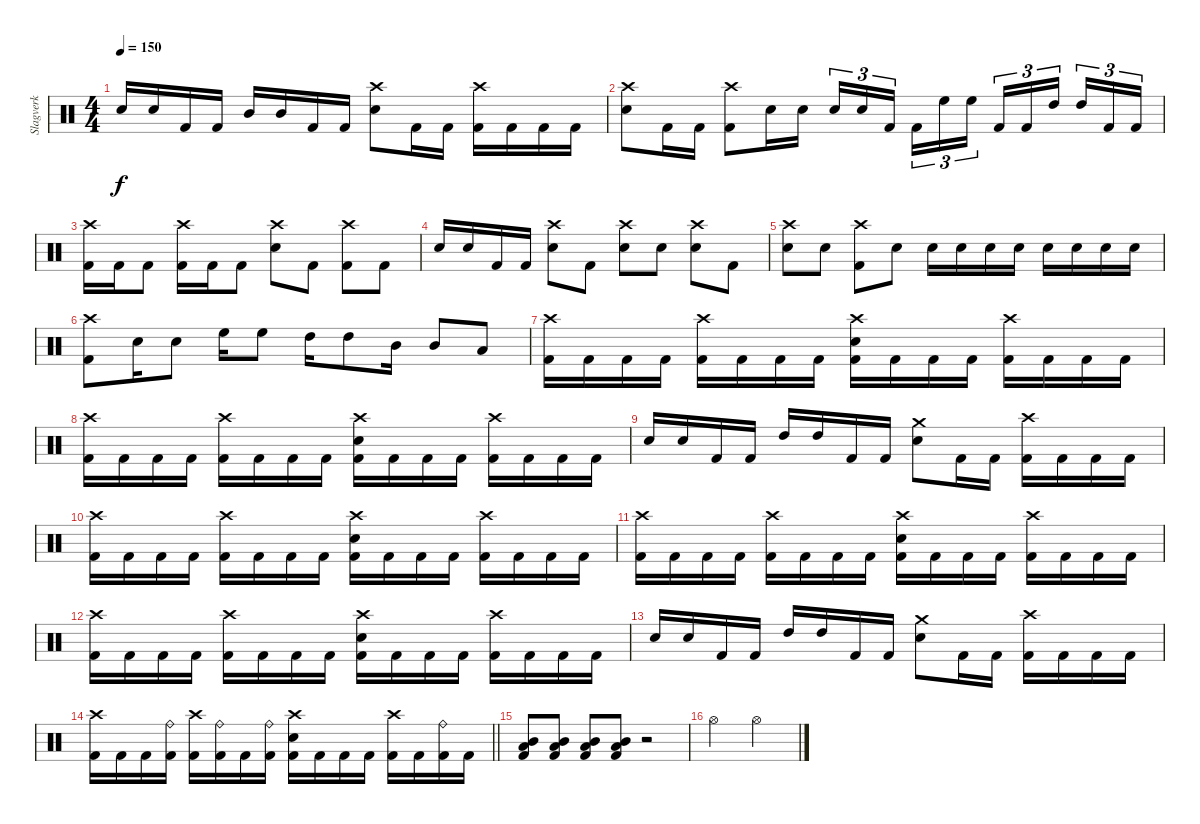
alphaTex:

\track ("Slagverk" "Slagverk") {instrument percussion}
\staff {score}
\articulation defaults
\ts (4 4)
\tempo 150
\clef neutral
\ks c "Electric Snare (hit)".16{dy f} "Electric Snare (hit)".16 "Kick (hit) 2".16 "Kick (hit) 2".16 "Mid Tom (hit)".16 "Mid Tom (hit)".16 "Kick (hit) 2".16 "Kick (hit) 2".16
("Crash high (hit)" "Electric Snare (hit)").8 "Kick (hit) 2".16 "Kick (hit) 2".16 ("Crash high (hit)" "Kick (hit) 2").16 "Kick (hit) 2".16 "Kick (hit) 2".16 "Kick (hit) 2".16 |
("Crash high (hit)" "Electric Snare (hit)").8 "Kick (hit) 2".16 "Kick (hit) 2".16 ("Crash high (hit)" "Kick (hit) 2").8 "Electric Snare (hit)".16 "Electric Snare (hit)".16 "Electric Snare (hit)".16{tu (3 2)} "Electric Snare (hit)".16{tu (3 2)} "Kick (hit) 2".16{tu (3 2) beam splitsecondary} "Kick (hit) 2".16{tu (3 2)} "High Floor Tom (hit)".16{tu (3 2)} "High Floor Tom (hit)".16{tu (3 2)} "Kick (hit) 2".16{tu (3 2)} "Kick (hit) 2".16{tu (3 2)} "High Tom (hit)".16{tu (3 2) beam splitsecondary} "High Tom (hit)".16{tu (3 2)} "Kick (hit) 2".16{tu (3 2)} "Kick (hit) 2".16{tu (3 2)} |
("Crash high (hit)" "Kick (hit) 2").16 "Kick (hit) 2".16 "Kick (hit) 2".8 ("Crash high (hit)" "Kick (hit) 2").16 "Kick (hit) 2".16 "Kick (hit) 2".8 ("Crash high (hit)" "Electric Snare (hit)").8 "Kick (hit) 2".8 ("Crash high (hit)" "Kick (hit) 2").8 "Kick (hit) 2".8 |
"Electric Snare (hit)".16 "Electric Snare (hit)".16 "Kick (hit) 2".16 "Kick (hit) 2".16 ("Crash high (hit)" "Electric Snare (hit)").8 "Kick (hit) 2".8 ("Crash high (hit)" "Electric Snare (hit)").8 "Electric Snare (hit)".8 ("Crash high (hit)" "Electric Snare (hit)").8 "Kick (hit) 2".8 |
("Crash high (hit)" "Electric Snare (hit)").8 "Electric Snare (hit)".8 ("Crash high (hit)" "Kick (hit) 2").8 "Electric Snare (hit)".8 "Electric Snare (hit)".16 "Electric Snare (hit)".16 "Electric Snare (hit)".16 "Electric Snare (hit)".16 "Electric Snare (hit)".16 "Electric Snare (hit)".16 "Electric Snare (hit)".16 "Electric Snare (hit)".16 |
("Crash high (hit)" "Kick (hit) 2").8 "Electric Snare (hit)".16 "Electric Snare (hit)".8 "High Floor Tom (hit)".16 "High Floor Tom (hit)".8 "High Tom (hit)".16 "High Tom (hit)".8 "Mid Tom (hit)".16 "Mid Tom (hit)".8 "Low Tom (hit)".8 |
("Crash high (hit)" "Kick (hit) 2").16 "Kick (hit) 2".16 "Kick (hit) 2".16 "Kick (hit) 2".16 ("Crash high (hit)" "Kick (hit) 2").16 "Kick (hit) 2".16 "Kick (hit) 2".16 "Kick (hit) 2".16 ("Crash high (hit)" "Electric Snare (hit)" "Kick (hit) 2").16 "Kick (hit) 2".16 "Kick (hit) 2".16 "Kick (hit) 2".16 ("Crash high (hit)" "Kick (hit) 2").16 "Kick (hit) 2".16 "Kick (hit) 2".16 "Kick (hit) 2".16 |
("Crash high (hit)" "Kick (hit) 2").16 "Kick (hit) 2".16 "Kick (hit) 2".16 "Kick (hit) 2".16 ("Crash high (hit)" "Kick (hit) 2").16 "Kick (hit) 2".16 "Kick (hit) 2".16 "Kick (hit) 2".16 ("Crash high (hit)" "Electric Snare (hit)" "Kick (hit) 2").16 "Kick (hit) 2".16 "Kick (hit) 2".16 "Kick (hit) 2".16 ("Crash high (hit)" "Kick (hit) 2").16 "Kick (hit) 2".16 "Kick (hit) 2".16 "Kick (hit) 2".16 |
"Electric Snare (hit)".16 "Electric Snare (hit)".16 "Kick (hit) 2".16 "Kick (hit) 2".16 "High Tom (hit)".16 "High Tom (hit)".16 "Kick (hit) 2".16 "Kick (hit) 2".16 ("Crash medium (hit)" "Electric Snare (hit)").8 "Kick (hit) 2".16 "Kick (hit) 2".16 ("Crash high (hit)" "Kick (hit) 2").16 "Kick (hit) 2".16 "Kick (hit) 2".16 "Kick (hit) 2".16 |
("Crash high (hit)" "Kick (hit) 2").16 "Kick (hit) 2".16 "Kick (hit) 2".16 "Kick (hit) 2".16 ("Crash high (hit)" "Kick (hit) 2").16 "Kick (hit) 2".16 "Kick (hit) 2".16 "Kick (hit) 2".16 ("Crash high (hit)" "Electric Snare (hit)" "Kick (hit) 2").16 "Kick (hit) 2".16 "Kick (hit) 2".16 "Kick (hit) 2".16 ("Crash high (hit)" "Kick (hit) 2").16 "Kick (hit) 2".16 "Kick (hit) 2".16 "Kick (hit) 2".16 |
("Crash high (hit)" "Kick (hit) 2").16 "Kick (hit) 2".16 "Kick (hit) 2".16 "Kick (hit) 2".16 ("Crash high (hit)" "Kick (hit) 2").16 "Kick (hit) 2".16 "Kick (hit) 2".16 "Kick (hit) 2".16 ("Crash high (hit)" "Electric Snare (hit)" "Kick (hit) 2").16 "Kick (hit) 2".16 "Kick (hit) 2".16 "Kick (hit) 2".16 ("Crash high (hit)" "Kick (hit) 2").16 "Kick (hit) 2".16 "Kick (hit) 2".16 "Kick (hit) 2".16 |
("Crash high (hit)" "Kick (hit) 2").16 "Kick (hit) 2".16 "Kick (hit) 2".16 "Kick (hit) 2".16 ("Crash high (hit)" "Kick (hit) 2").16 "Kick (hit) 2".16 "Kick (hit) 2".16 "Kick (hit) 2".16 ("Crash high (hit)" "Electric Snare (hit)" "Kick (hit) 2").16 "Kick (hit) 2".16 "Kick (hit) 2".16 "Kick (hit) 2".16 ("Crash high (hit)" "Kick (hit) 2").16 "Kick (hit) 2".16 "Kick (hit) 2".16 "Kick (hit) 2".16 |
"Electric Snare (hit)".16 "Electric Snare (hit)".16 "Kick (hit) 2".16 "Kick (hit) 2".16 "High Tom (hit)".16 "High Tom (hit)".16 "Kick (hit) 2".16 "Kick (hit) 2".16 ("Crash medium (hit)" "Electric Snare (hit)").8 "Kick (hit) 2".16 "Kick (hit) 2".16 ("Crash high (hit)" "Kick (hit) 2").16 "Kick (hit) 2".16 "Kick (hit) 2".16 "Kick (hit) 2".16 |
\barLineRight lightlight
("Crash high (hit)" "Kick (hit) 2").16 "Kick (hit) 2".16 "Kick (hit) 2".16 ("Ride (bell)" "Kick (hit) 2").16 ("Crash high (hit)" "Kick (hit) 2").16 ("Ride (bell)" "Kick (hit) 2").16 "Kick (hit) 2".16 ("Ride (bell)" "Kick (hit) 2").16 ("Crash high (hit)" "Electric Snare (hit)" "Kick (hit) 2").16 "Kick (hit) 2".16 "Kick (hit) 2".16 "Kick (hit) 2".16 ("Crash high (hit)" "Kick (hit) 2").16 "Kick (hit) 2".16 ("Ride (bell)" "Kick (hit) 2").16 "Kick (hit) 2".16 |
\section ("" "")
("Mid Tom (hit)" "Low Tom (hit)" "Kick (hit) 2").8 ("Mid Tom (hit)" "Low Tom (hit)" "Kick (hit) 2").8 ("Mid Tom (hit)" "Low Tom (hit)" "Kick (hit) 2").8 ("Mid Tom (hit)" "Low Tom (hit)" "Kick (hit) 2").8 r.2 |
"Hi-Hat (open)".2 "Hi-Hat (open)".2
